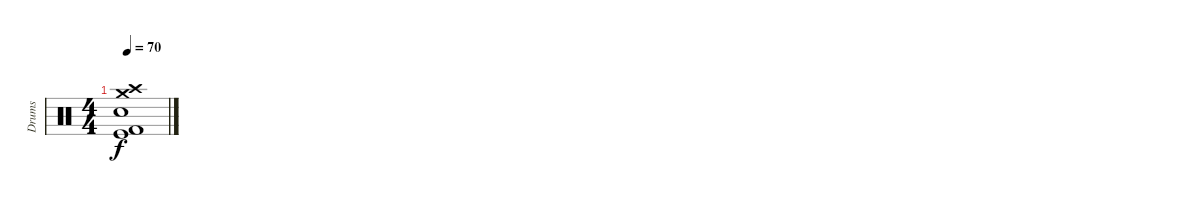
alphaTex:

\track ("Drums" "Drums") {instrument percussion}
\staff {score}
\articulation defaults
\ts (4 4)
\tempo 70
\clef neutral
\ks c
("Electric Snare (hit)" "Crash medium (hit)" "Crash high (hit)" "Kick (hit)" "Kick (hit) 2").1{dy f}
